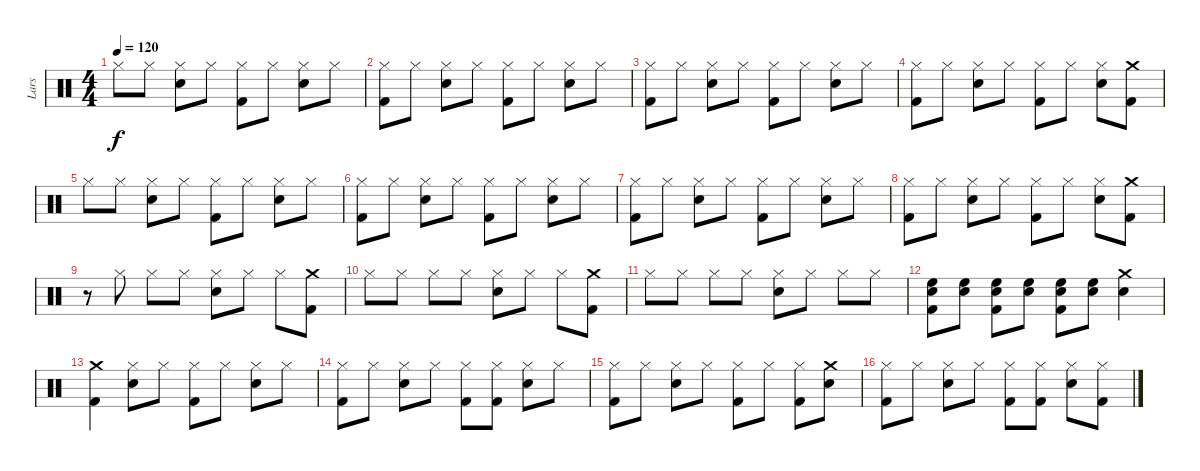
\track ("Lars" "Lars") {instrument percussion}
\staff {score}
\articulation defaults
\ts (4 4)
\tempo 120
\clef neutral
\ks c "Hi-Hat (closed)".8{dy f} "Hi-Hat (closed)".8
("Snare (hit) 2" "Hi-Hat (closed)").8 "Hi-Hat (closed)".8 ("Kick (hit) 2" "Hi-Hat (closed)").8 "Hi-Hat (closed)".8 ("Snare (hit) 2" "Hi-Hat (closed)").8 "Hi-Hat (closed)".8 |
("Kick (hit) 2" "Hi-Hat (closed)").8 "Hi-Hat (closed)".8 ("Snare (hit) 2" "Hi-Hat (closed)").8 "Hi-Hat (closed)".8 ("Kick (hit) 2" "Hi-Hat (closed)").8 "Hi-Hat (closed)".8 ("Snare (hit) 2" "Hi-Hat (closed)").8 "Hi-Hat (closed)".8 |
("Kick (hit) 2" "Hi-Hat (closed)").8 "Hi-Hat (closed)".8 ("Snare (hit) 2" "Hi-Hat (closed)").8 "Hi-Hat (closed)".8 ("Kick (hit) 2" "Hi-Hat (closed)").8 "Hi-Hat (closed)".8 ("Snare (hit) 2" "Hi-Hat (closed)").8 "Hi-Hat (closed)".8 |
("Kick (hit) 2" "Hi-Hat (closed)").8 "Hi-Hat (closed)".8 ("Snare (hit) 2" "Hi-Hat (closed)").8 "Hi-Hat (closed)".8 ("Kick (hit) 2" "Hi-Hat (closed)").8 "Hi-Hat (closed)".8 ("Snare (hit) 2" "Hi-Hat (closed)").8 ("Kick (hit) 2" "Crash medium (hit)").8 |
"Hi-Hat (closed)".8 "Hi-Hat (closed)".8 ("Snare (hit) 2" "Hi-Hat (closed)").8 "Hi-Hat (closed)".8 ("Kick (hit) 2" "Hi-Hat (closed)").8 "Hi-Hat (closed)".8 ("Snare (hit) 2" "Hi-Hat (closed)").8 "Hi-Hat (closed)".8 |
("Kick (hit) 2" "Hi-Hat (closed)").8 "Hi-Hat (closed)".8 ("Snare (hit) 2" "Hi-Hat (closed)").8 "Hi-Hat (closed)".8 ("Kick (hit) 2" "Hi-Hat (closed)").8 "Hi-Hat (closed)".8 ("Snare (hit) 2" "Hi-Hat (closed)").8 "Hi-Hat (closed)".8 |
("Kick (hit) 2" "Hi-Hat (closed)").8 "Hi-Hat (closed)".8 ("Snare (hit) 2" "Hi-Hat (closed)").8 "Hi-Hat (closed)".8 ("Kick (hit) 2" "Hi-Hat (closed)").8 "Hi-Hat (closed)".8 ("Snare (hit) 2" "Hi-Hat (closed)").8 "Hi-Hat (closed)".8 |
("Kick (hit) 2" "Hi-Hat (closed)").8 "Hi-Hat (closed)".8 ("Snare (hit) 2" "Hi-Hat (closed)").8 "Hi-Hat (closed)".8 ("Kick (hit) 2" "Hi-Hat (closed)").8 "Hi-Hat (closed)".8 ("Snare (hit) 2" "Hi-Hat (closed)").8 ("Kick (hit) 2" "Crash medium (hit)").8 |
r.8 "Hi-Hat (closed)".8 "Hi-Hat (closed)".8 "Hi-Hat (closed)".8 ("Snare (hit) 2" "Hi-Hat (closed)").8 "Hi-Hat (closed)".8 "Hi-Hat (closed)".8 ("Kick (hit) 2" "Crash medium (hit)").8 |
"Hi-Hat (closed)".8 "Hi-Hat (closed)".8 "Hi-Hat (closed)".8 "Hi-Hat (closed)".8 ("Snare (hit) 2" "Hi-Hat (closed)").8 "Hi-Hat (closed)".8 "Hi-Hat (closed)".8 ("Crash medium (hit)" "Kick (hit) 2").8 |
"Hi-Hat (closed)".8 "Hi-Hat (closed)".8 "Hi-Hat (closed)".8 "Hi-Hat (closed)".8 ("Snare (hit) 2" "Hi-Hat (closed)").8 "Hi-Hat (closed)".8 "Hi-Hat (closed)".8 "Hi-Hat (closed)".8 |
("Kick (hit) 2" "Snare (hit) 2" "High Floor Tom (hit)").8 ("Snare (hit) 2" "High Floor Tom (hit)").8 ("Kick (hit) 2" "Snare (hit) 2" "High Floor Tom (hit)").8 ("Snare (hit) 2" "High Floor Tom (hit)").8 ("Kick (hit) 2" "Snare (hit) 2" "High Floor Tom (hit)").8 ("Snare (hit) 2" "High Floor Tom (hit)").8 ("Crash medium (hit)" "Snare (hit) 2").4 |
("Kick (hit) 2" "Crash medium (hit)").4 ("Snare (hit) 2" "Hi-Hat (closed)").8 "Hi-Hat (closed)".8 ("Hi-Hat (closed)" "Kick (hit) 2").8 "Hi-Hat (closed)".8 ("Snare (hit) 2" "Hi-Hat (closed)").8 "Hi-Hat (closed)".8 |
("Hi-Hat (closed)" "Kick (hit) 2").8 "Hi-Hat (closed)".8 ("Snare (hit) 2" "Hi-Hat (closed)").8 "Hi-Hat (closed)".8 ("Kick (hit) 2" "Hi-Hat (closed)").8 ("Kick (hit) 2" "Hi-Hat (closed)").8 ("Snare (hit) 2" "Hi-Hat (closed)").8 "Hi-Hat (closed)".8 |
("Hi-Hat (closed)" "Kick (hit) 2").8 "Hi-Hat (closed)".8 ("Snare (hit) 2" "Hi-Hat (closed)").8 "Hi-Hat (closed)".8 ("Hi-Hat (closed)" "Kick (hit) 2").8 "Hi-Hat (closed)".8 ("Hi-Hat (closed)" "Kick (hit) 2").8 ("Crash medium (hit)" "Snare (hit) 2").8 |
("Hi-Hat (closed)" "Kick (hit) 2").8 "Hi-Hat (closed)".8 ("Snare (hit) 2" "Hi-Hat (closed)").8 "Hi-Hat (closed)".8 ("Kick (hit) 2" "Hi-Hat (closed)").8 ("Kick (hit) 2" "Hi-Hat (closed)").8 ("Snare (hit) 2" "Hi-Hat (closed)").8 ("Kick (hit) 2" "Hi-Hat (closed)").8
